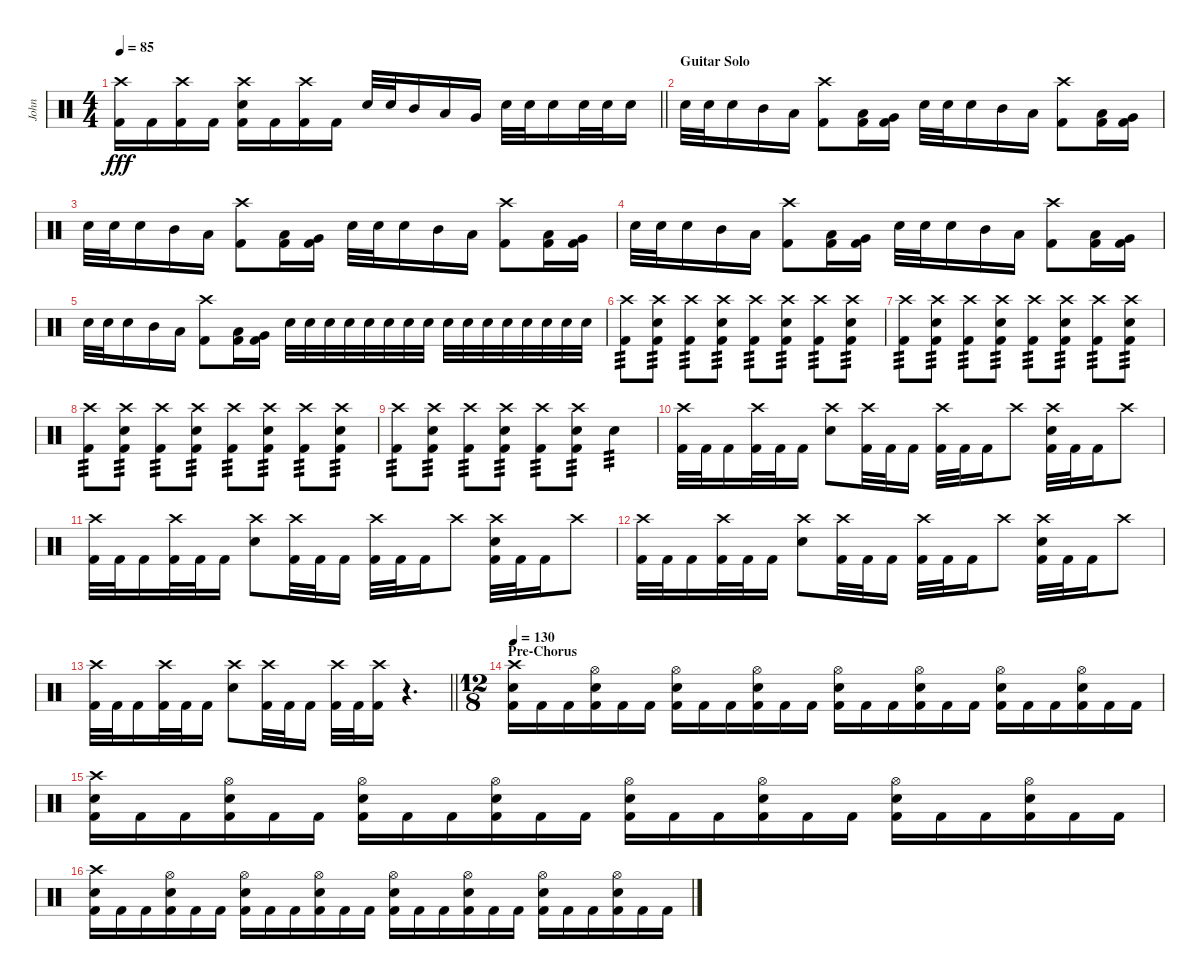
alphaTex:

\track ("John" "John") {instrument percussion}
\staff {score}
\articulation defaults
\ts (4 4)
\tempo 85
\clef neutral
\barLineRight lightlight
\ks c
("Crash high (hit)" "Kick (hit) 2").16{dy fff} "Kick (hit) 2".16 ("Crash high (hit)" "Kick (hit) 2").16 "Kick (hit) 2".16 ("Crash high (hit)" "Electric Snare (hit)" "Kick (hit) 2").16 "Kick (hit) 2".16 ("Crash high (hit)" "Kick (hit) 2").16 "Kick (hit) 2".16 "Electric Snare (hit)".32 "Electric Snare (hit)".32 "Mid Tom (hit)".16 "Low Tom (hit)".16 "Very Low Tom (hit)".16 "Electric Snare (hit)".32 "Electric Snare (hit)".32 "Electric Snare (hit)".16 "Electric Snare (hit)".32 "Electric Snare (hit)".32 "Electric Snare (hit)".16 |
\section ("" "Guitar Solo")
"Electric Snare (hit)".32 "Electric Snare (hit)".32 "Electric Snare (hit)".16 "Mid Tom (hit)".16 "Low Tom (hit)".16 ("Crash high (hit)" "Kick (hit) 2").8 ("Low Tom (hit)" "Kick (hit) 2").16 ("Very Low Tom (hit)" "Kick (hit) 2").16 "Electric Snare (hit)".32 "Electric Snare (hit)".32 "Electric Snare (hit)".16 "Mid Tom (hit)".16 "Low Tom (hit)".16 ("Crash high (hit)" "Kick (hit) 2").8 ("Low Tom (hit)" "Kick (hit) 2").16 ("Very Low Tom (hit)" "Kick (hit) 2").16 |
"Electric Snare (hit)".32 "Electric Snare (hit)".32 "Electric Snare (hit)".16 "Mid Tom (hit)".16 "Low Tom (hit)".16 ("Crash high (hit)" "Kick (hit) 2").8 ("Low Tom (hit)" "Kick (hit) 2").16 ("Very Low Tom (hit)" "Kick (hit) 2").16 "Electric Snare (hit)".32 "Electric Snare (hit)".32 "Electric Snare (hit)".16 "Mid Tom (hit)".16 "Low Tom (hit)".16 ("Crash high (hit)" "Kick (hit) 2").8 ("Low Tom (hit)" "Kick (hit) 2").16 ("Very Low Tom (hit)" "Kick (hit) 2").16 |
"Electric Snare (hit)".32 "Electric Snare (hit)".32 "Electric Snare (hit)".16 "Mid Tom (hit)".16 "Low Tom (hit)".16 ("Crash high (hit)" "Kick (hit) 2").8 ("Low Tom (hit)" "Kick (hit) 2").16 ("Very Low Tom (hit)" "Kick (hit) 2").16 "Electric Snare (hit)".32 "Electric Snare (hit)".32 "Electric Snare (hit)".16 "Mid Tom (hit)".16 "Low Tom (hit)".16 ("Crash high (hit)" "Kick (hit) 2").8 ("Low Tom (hit)" "Kick (hit) 2").16 ("Very Low Tom (hit)" "Kick (hit) 2").16 |
"Electric Snare (hit)".32 "Electric Snare (hit)".32 "Electric Snare (hit)".16 "Mid Tom (hit)".16 "Low Tom (hit)".16 ("Crash high (hit)" "Kick (hit) 2").8 ("Low Tom (hit)" "Kick (hit) 2").16 ("Very Low Tom (hit)" "Kick (hit) 2").16 "Electric Snare (hit)".32 "Electric Snare (hit)".32 "Electric Snare (hit)".32 "Electric Snare (hit)".32 "Electric Snare (hit)".32 "Electric Snare (hit)".32 "Electric Snare (hit)".32 "Electric Snare (hit)".32 "Electric Snare (hit)".32 "Electric Snare (hit)".32 "Electric Snare (hit)".32 "Electric Snare (hit)".32 "Electric Snare (hit)".32 "Electric Snare (hit)".32 "Electric Snare (hit)".32 "Electric Snare (hit)".32 |
("Crash high (hit)" "Kick (hit) 2").8{tp 3} ("Crash high (hit)" "Electric Snare (hit)" "Kick (hit) 2").8{tp 3} ("Crash high (hit)" "Kick (hit) 2").8{tp 3} ("Crash high (hit)" "Electric Snare (hit)" "Kick (hit) 2").8{tp 3} ("Crash high (hit)" "Kick (hit) 2").8{tp 3} ("Crash high (hit)" "Electric Snare (hit)" "Kick (hit) 2").8{tp 3} ("Crash high (hit)" "Kick (hit) 2").8{tp 3} ("Crash high (hit)" "Electric Snare (hit)" "Kick (hit) 2").8{tp 3} |
("Crash high (hit)" "Kick (hit) 2").8{tp 3} ("Crash high (hit)" "Electric Snare (hit)" "Kick (hit) 2").8{tp 3} ("Crash high (hit)" "Kick (hit) 2").8{tp 3} ("Crash high (hit)" "Electric Snare (hit)" "Kick (hit) 2").8{tp 3} ("Crash high (hit)" "Kick (hit) 2").8{tp 3} ("Crash high (hit)" "Electric Snare (hit)" "Kick (hit) 2").8{tp 3} ("Crash high (hit)" "Kick (hit) 2").8{tp 3} ("Crash high (hit)" "Electric Snare (hit)" "Kick (hit) 2").8{tp 3} |
("Crash high (hit)" "Kick (hit) 2").8{tp 3} ("Crash high (hit)" "Electric Snare (hit)" "Kick (hit) 2").8{tp 3} ("Crash high (hit)" "Kick (hit) 2").8{tp 3} ("Crash high (hit)" "Electric Snare (hit)" "Kick (hit) 2").8{tp 3} ("Crash high (hit)" "Kick (hit) 2").8{tp 3} ("Crash high (hit)" "Electric Snare (hit)" "Kick (hit) 2").8{tp 3} ("Crash high (hit)" "Kick (hit) 2").8{tp 3} ("Crash high (hit)" "Electric Snare (hit)" "Kick (hit) 2").8{tp 3} |
("Crash high (hit)" "Kick (hit) 2").8{tp 3} ("Crash high (hit)" "Electric Snare (hit)" "Kick (hit) 2").8{tp 3} ("Crash high (hit)" "Kick (hit) 2").8{tp 3} ("Crash high (hit)" "Electric Snare (hit)" "Kick (hit) 2").8{tp 3} ("Crash high (hit)" "Kick (hit) 2").8{tp 3} ("Crash high (hit)" "Electric Snare (hit)" "Kick (hit) 2").8{tp 3} "Electric Snare (hit)".4{tp 3} |
("Crash high (hit)" "Kick (hit) 2").32 "Kick (hit) 2".32 "Kick (hit) 2".16 ("Crash high (hit)" "Kick (hit) 2").32 "Kick (hit) 2".32 "Kick (hit) 2".16 ("Crash high (hit)" "Electric Snare (hit)").8 ("Crash high (hit)" "Kick (hit) 2").32 "Kick (hit) 2".32 "Kick (hit) 2".16 ("Crash high (hit)" "Kick (hit) 2").32 "Kick (hit) 2".32 "Kick (hit) 2".16 "Crash high (hit)".8 ("Crash high (hit)" "Electric Snare (hit)" "Kick (hit) 2").32 "Kick (hit) 2".32 "Kick (hit) 2".16 "Crash high (hit)".8 |
("Crash high (hit)" "Kick (hit) 2").32 "Kick (hit) 2".32 "Kick (hit) 2".16 ("Crash high (hit)" "Kick (hit) 2").32 "Kick (hit) 2".32 "Kick (hit) 2".16 ("Crash high (hit)" "Electric Snare (hit)").8 ("Crash high (hit)" "Kick (hit) 2").32 "Kick (hit) 2".32 "Kick (hit) 2".16 ("Crash high (hit)" "Kick (hit) 2").32 "Kick (hit) 2".32 "Kick (hit) 2".16 "Crash high (hit)".8 ("Crash high (hit)" "Electric Snare (hit)" "Kick (hit) 2").32 "Kick (hit) 2".32 "Kick (hit) 2".16 "Crash high (hit)".8 |
("Crash high (hit)" "Kick (hit) 2").32 "Kick (hit) 2".32 "Kick (hit) 2".16 ("Crash high (hit)" "Kick (hit) 2").32 "Kick (hit) 2".32 "Kick (hit) 2".16 ("Crash high (hit)" "Electric Snare (hit)").8 ("Crash high (hit)" "Kick (hit) 2").32 "Kick (hit) 2".32 "Kick (hit) 2".16 ("Crash high (hit)" "Kick (hit) 2").32 "Kick (hit) 2".32 "Kick (hit) 2".16 "Crash high (hit)".8 ("Crash high (hit)" "Electric Snare (hit)" "Kick (hit) 2").32 "Kick (hit) 2".32 "Kick (hit) 2".16 "Crash high (hit)".8 |
\barLineRight lightlight
("Crash high (hit)" "Kick (hit) 2").32 "Kick (hit) 2".32 "Kick (hit) 2".16 ("Crash high (hit)" "Kick (hit) 2").32 "Kick (hit) 2".32 "Kick (hit) 2".16 ("Crash high (hit)" "Electric Snare (hit)").8 ("Crash high (hit)" "Kick (hit) 2").32 "Kick (hit) 2".32 "Kick (hit) 2".16 ("Crash high (hit)" "Kick (hit) 2").32 "Kick (hit) 2".32 ("Crash high (hit)" "Kick (hit) 2").16 r.4{d} |
\ts (12 8)
\section ("" "Pre-Chorus")
\tempo 130
("Crash high (hit)" "Electric Snare (hit)" "Kick (hit) 2").16 "Kick (hit) 2".16 "Kick (hit) 2".16 ("Hi-Hat (open)" "Electric Snare (hit)" "Kick (hit) 2").16 "Kick (hit) 2".16 "Kick (hit) 2".16 ("Hi-Hat (open)" "Electric Snare (hit)" "Kick (hit) 2").16 "Kick (hit) 2".16 "Kick (hit) 2".16 ("Hi-Hat (open)" "Electric Snare (hit)" "Kick (hit) 2").16 "Kick (hit) 2".16 "Kick (hit) 2".16 ("Hi-Hat (open)" "Electric Snare (hit)" "Kick (hit) 2").16 "Kick (hit) 2".16 "Kick (hit) 2".16 ("Hi-Hat (open)" "Electric Snare (hit)" "Kick (hit) 2").16 "Kick (hit) 2".16 "Kick (hit) 2".16 ("Hi-Hat (open)" "Electric Snare (hit)" "Kick (hit) 2").16 "Kick (hit) 2".16 "Kick (hit) 2".16 ("Hi-Hat (open)" "Electric Snare (hit)" "Kick (hit) 2").16 "Kick (hit) 2".16 "Kick (hit) 2".16 |
("Crash high (hit)" "Electric Snare (hit)" "Kick (hit) 2").16 "Kick (hit) 2".16 "Kick (hit) 2".16 ("Hi-Hat (open)" "Electric Snare (hit)" "Kick (hit) 2").16 "Kick (hit) 2".16 "Kick (hit) 2".16 ("Hi-Hat (open)" "Electric Snare (hit)" "Kick (hit) 2").16 "Kick (hit) 2".16 "Kick (hit) 2".16 ("Hi-Hat (open)" "Electric Snare (hit)" "Kick (hit) 2").16 "Kick (hit) 2".16 "Kick (hit) 2".16 ("Hi-Hat (open)" "Electric Snare (hit)" "Kick (hit) 2").16 "Kick (hit) 2".16 "Kick (hit) 2".16 ("Hi-Hat (open)" "Electric Snare (hit)" "Kick (hit) 2").16 "Kick (hit) 2".16 "Kick (hit) 2".16 ("Hi-Hat (open)" "Electric Snare (hit)" "Kick (hit) 2").16 "Kick (hit) 2".16 "Kick (hit) 2".16 ("Hi-Hat (open)" "Electric Snare (hit)" "Kick (hit) 2").16 "Kick (hit) 2".16 "Kick (hit) 2".16 |
("Crash high (hit)" "Electric Snare (hit)" "Kick (hit) 2").16 "Kick (hit) 2".16 "Kick (hit) 2".16 ("Hi-Hat (open)" "Electric Snare (hit)" "Kick (hit) 2").16 "Kick (hit) 2".16 "Kick (hit) 2".16 ("Hi-Hat (open)" "Electric Snare (hit)" "Kick (hit) 2").16 "Kick (hit) 2".16 "Kick (hit) 2".16 ("Hi-Hat (open)" "Electric Snare (hit)" "Kick (hit) 2").16 "Kick (hit) 2".16 "Kick (hit) 2".16 ("Hi-Hat (open)" "Electric Snare (hit)" "Kick (hit) 2").16 "Kick (hit) 2".16 "Kick (hit) 2".16 ("Hi-Hat (open)" "Electric Snare (hit)" "Kick (hit) 2").16 "Kick (hit) 2".16 "Kick (hit) 2".16 ("Hi-Hat (open)" "Electric Snare (hit)" "Kick (hit) 2").16 "Kick (hit) 2".16 "Kick (hit) 2".16 ("Hi-Hat (open)" "Electric Snare (hit)" "Kick (hit) 2").16 "Kick (hit) 2".16 "Kick (hit) 2".16
